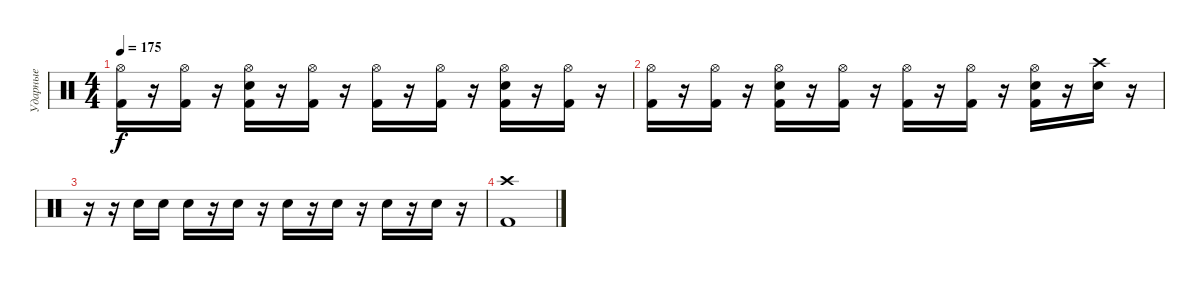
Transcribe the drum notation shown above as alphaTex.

\track ("Ударные" "Ударные") {instrument percussion}
\staff {score}
\articulation defaults
\ts (4 4)
\tempo 175
\clef neutral
\ks c
("Hi-Hat (open)" "Kick (hit) 2").16{dy f} r.16 ("Hi-Hat (open)" "Kick (hit) 2").16 r.16 ("Hi-Hat (open)" "Electric Snare (hit)" "Kick (hit) 2").16 r.16 ("Hi-Hat (open)" "Kick (hit) 2").16 r.16 ("Hi-Hat (open)" "Kick (hit) 2").16 r.16 ("Hi-Hat (open)" "Kick (hit) 2").16 r.16 ("Hi-Hat (open)" "Electric Snare (hit)" "Kick (hit) 2").16 r.16 ("Hi-Hat (open)" "Kick (hit) 2").16 r.16 |
("Hi-Hat (open)" "Kick (hit) 2").16 r.16 ("Hi-Hat (open)" "Kick (hit) 2").16 r.16 ("Hi-Hat (open)" "Electric Snare (hit)" "Kick (hit) 2").16 r.16 ("Hi-Hat (open)" "Kick (hit) 2").16 r.16 ("Hi-Hat (open)" "Kick (hit) 2").16 r.16 ("Hi-Hat (open)" "Kick (hit) 2").16 r.16 ("Hi-Hat (open)" "Electric Snare (hit)" "Kick (hit) 2").16 r.16 ("Crash high (hit)" "Electric Snare (hit)").16 r.16 |
r.16 r.16 "Electric Snare (hit)".16 "Electric Snare (hit)".16 "Electric Snare (hit)".16 r.16 "Electric Snare (hit)".16 r.16 "Electric Snare (hit)".16 r.16 "Electric Snare (hit)".16 r.16 "Electric Snare (hit)".16 r.16 "Electric Snare (hit)".16 r.16 |
("Crash high (hit)" "Kick (hit) 2").1
